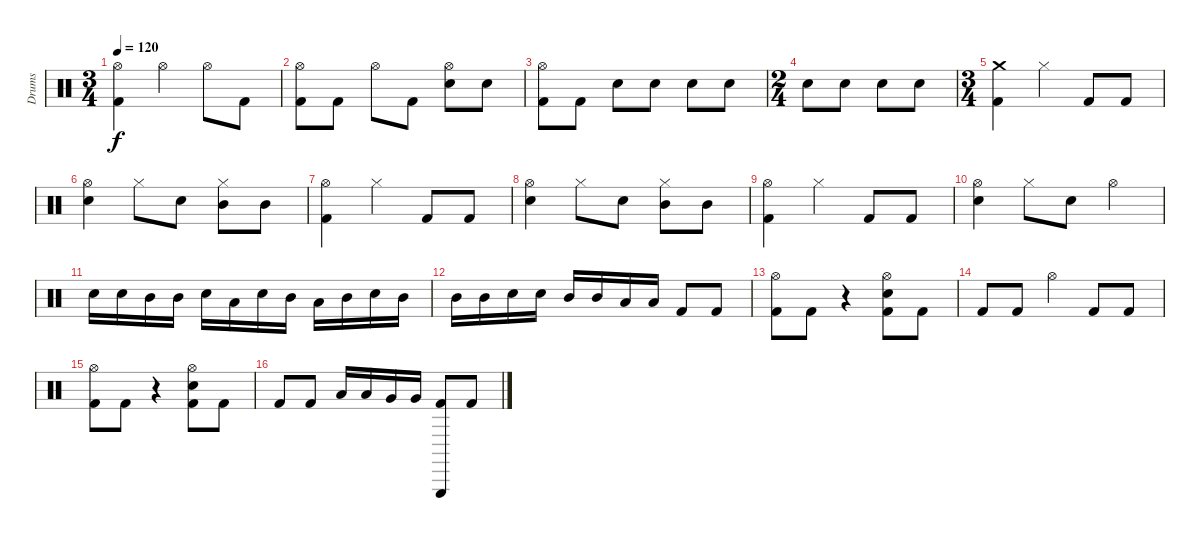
\track ("Drums" "Drums") {instrument percussion}
\staff {score}
\articulation defaults
\ts (3 4)
\tempo 120
\clef neutral
\ks c
("Hi-Hat (open)" "Kick (hit) 2").4{dy f} "Hi-Hat (open)".4 "Hi-Hat (open)".8 "Kick (hit) 2".8 |
("Hi-Hat (open)" "Kick (hit) 2").8 "Kick (hit) 2".8 "Hi-Hat (open)".8 "Kick (hit) 2".8 ("Electric Snare (hit)" "Hi-Hat (open)").8 "Electric Snare (hit)".8 |
("Hi-Hat (open)" "Kick (hit) 2").8 "Kick (hit) 2".8 "Electric Snare (hit)".8 "Electric Snare (hit)".8 "Snare (hit) 2".8 "Electric Snare (hit)".8 |
\ts (2 4)
"Electric Snare (hit)".8 "Electric Snare (hit)".8 "Electric Snare (hit)".8 "Electric Snare (hit)".8 |
\ts (3 4)
("Crash medium (hit)" "Kick (hit) 2").4 "Hi-Hat (closed)".4 "Kick (hit) 2".8 "Kick (hit) 2".8 |
("Electric Snare (hit)" "Hi-Hat (open)").4 "Hi-Hat (closed)".8 "Electric Snare (hit)".8 ("Hi-Hat (closed)" "Mid Tom (hit)").8 "Mid Tom (hit)".8 |
("Hi-Hat (open)" "Kick (hit) 2").4 "Hi-Hat (closed)".4 "Kick (hit) 2".8 "Kick (hit) 2".8 |
("Electric Snare (hit)" "Hi-Hat (open)").4 "Hi-Hat (closed)".8 "Electric Snare (hit)".8 ("Hi-Hat (closed)" "Mid Tom (hit)").8 "Mid Tom (hit)".8 |
("Hi-Hat (open)" "Kick (hit) 2").4 "Hi-Hat (closed)".4 "Kick (hit) 2".8 "Kick (hit) 2".8 |
("Electric Snare (hit)" "Hi-Hat (open)").4 "Hi-Hat (closed)".8 "Electric Snare (hit)".8 "Hi-Hat (open)".4 |
"Electric Snare (hit)".16 "Electric Snare (hit)".16 "Mid Tom (hit)".16 "Mid Tom (hit)".16 "Electric Snare (hit)".16 "Low Tom (hit)".16 "Electric Snare (hit)".16 "Mid Tom (hit)".16 "Low Tom (hit)".16 "Mid Tom (hit)".16 "Electric Snare (hit)".16 "Mid Tom (hit)".16 |
"Mid Tom (hit)".16 "Mid Tom (hit)".16 "Electric Snare (hit)".16 "Electric Snare (hit)".16 "Mid Tom (hit)".16 "Mid Tom (hit)".16 "Low Tom (hit)".16 "Low Tom (hit)".16 "Kick (hit) 2".8 "Kick (hit) 2".8 |
("Hi-Hat (open)" "Kick (hit) 2").8 "Kick (hit) 2".8 r.4 ("Electric Snare (hit)" "Hi-Hat (open)" "Kick (hit) 2").8 "Kick (hit) 2".8 |
"Kick (hit) 2".8 "Kick (hit) 2".8 "Hi-Hat (open)".4 "Kick (hit) 2".8 "Kick (hit) 2".8 |
("Hi-Hat (open)" "Kick (hit) 2").8 "Kick (hit) 2".8 r.4 ("Electric Snare (hit)" "Hi-Hat (open)" "Kick (hit) 2").8 "Kick (hit) 2".8 |
"Kick (hit) 2".8 "Kick (hit) 2".8 "Low Tom (hit)".16 "Low Tom (hit)".16 "Very Low Tom (hit)".16 "Very Low Tom (hit)".16 ("Triangle (hit)" "Kick (hit) 2").8 "Kick (hit) 2".8
